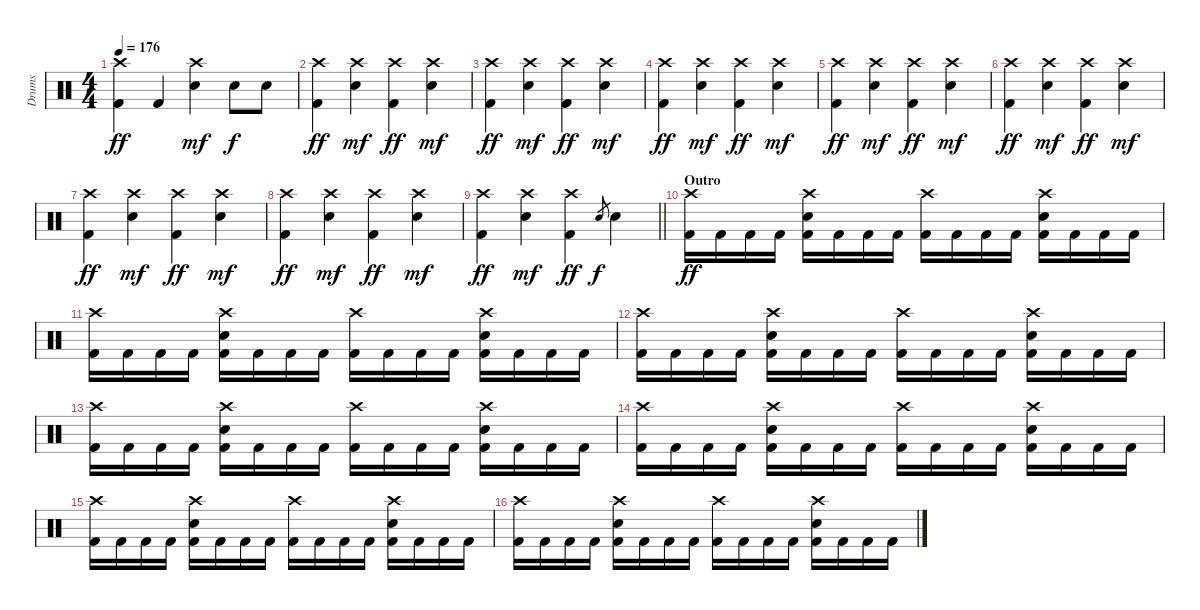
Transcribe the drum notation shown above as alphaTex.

\track ("Drums" "Drums") {instrument percussion}
\staff {score}
\articulation defaults
\ts (4 4)
\tempo 176
\clef neutral
\ks c
("Crash high (hit)" "Kick (hit) 2").4{dy ff} "Kick (hit) 2".4 ("Crash high (hit)" "Electric Snare (hit)").4{dy mf} "Electric Snare (hit)".8{dy f} "Electric Snare (hit)".8 |
("Crash high (hit)" "Kick (hit) 2").4{dy ff} ("Crash high (hit)" "Electric Snare (hit)").4{dy mf} ("Crash high (hit)" "Kick (hit) 2").4{dy ff} ("Crash high (hit)" "Electric Snare (hit)").4{dy mf} |
("Crash high (hit)" "Kick (hit) 2").4{dy ff} ("Crash high (hit)" "Electric Snare (hit)").4{dy mf} ("Crash high (hit)" "Kick (hit) 2").4{dy ff} ("Crash high (hit)" "Electric Snare (hit)").4{dy mf} |
("Crash high (hit)" "Kick (hit) 2").4{dy ff} ("Crash high (hit)" "Electric Snare (hit)").4{dy mf} ("Crash high (hit)" "Kick (hit) 2").4{dy ff} ("Crash high (hit)" "Electric Snare (hit)").4{dy mf} |
("Crash high (hit)" "Kick (hit) 2").4{dy ff} ("Crash high (hit)" "Electric Snare (hit)").4{dy mf} ("Crash high (hit)" "Kick (hit) 2").4{dy ff} ("Crash high (hit)" "Electric Snare (hit)").4{dy mf} |
("Crash high (hit)" "Kick (hit) 2").4{dy ff} ("Crash high (hit)" "Electric Snare (hit)").4{dy mf} ("Crash high (hit)" "Kick (hit) 2").4{dy ff} ("Crash high (hit)" "Electric Snare (hit)").4{dy mf} |
("Crash high (hit)" "Kick (hit) 2").4{dy ff} ("Crash high (hit)" "Electric Snare (hit)").4{dy mf} ("Crash high (hit)" "Kick (hit) 2").4{dy ff} ("Crash high (hit)" "Electric Snare (hit)").4{dy mf} |
("Crash high (hit)" "Kick (hit) 2").4{dy ff} ("Crash high (hit)" "Electric Snare (hit)").4{dy mf} ("Crash high (hit)" "Kick (hit) 2").4{dy ff} ("Crash high (hit)" "Electric Snare (hit)").4{dy mf} |
\barLineRight lightlight
("Crash high (hit)" "Kick (hit) 2").4{dy ff} ("Crash high (hit)" "Electric Snare (hit)").4{dy mf} ("Crash high (hit)" "Kick (hit) 2").4{dy ff} "Electric Snare (hit)".8{gr dy f} "Electric Snare (hit)".4 |
\section ("" "Outro")
("Crash high (hit)" "Kick (hit) 2").16{dy ff} "Kick (hit) 2".16 "Kick (hit) 2".16 "Kick (hit) 2".16 ("Crash high (hit)" "Electric Snare (hit)" "Kick (hit) 2").16 "Kick (hit) 2".16 "Kick (hit) 2".16 "Kick (hit) 2".16 ("Crash high (hit)" "Kick (hit) 2").16 "Kick (hit) 2".16 "Kick (hit) 2".16 "Kick (hit) 2".16 ("Crash high (hit)" "Electric Snare (hit)" "Kick (hit) 2").16 "Kick (hit) 2".16 "Kick (hit) 2".16 "Kick (hit) 2".16 |
("Crash high (hit)" "Kick (hit) 2").16 "Kick (hit) 2".16 "Kick (hit) 2".16 "Kick (hit) 2".16 ("Crash high (hit)" "Electric Snare (hit)" "Kick (hit) 2").16 "Kick (hit) 2".16 "Kick (hit) 2".16 "Kick (hit) 2".16 ("Crash high (hit)" "Kick (hit) 2").16 "Kick (hit) 2".16 "Kick (hit) 2".16 "Kick (hit) 2".16 ("Crash high (hit)" "Electric Snare (hit)" "Kick (hit) 2").16 "Kick (hit) 2".16 "Kick (hit) 2".16 "Kick (hit) 2".16 |
("Crash high (hit)" "Kick (hit) 2").16 "Kick (hit) 2".16 "Kick (hit) 2".16 "Kick (hit) 2".16 ("Crash high (hit)" "Electric Snare (hit)" "Kick (hit) 2").16 "Kick (hit) 2".16 "Kick (hit) 2".16 "Kick (hit) 2".16 ("Crash high (hit)" "Kick (hit) 2").16 "Kick (hit) 2".16 "Kick (hit) 2".16 "Kick (hit) 2".16 ("Crash high (hit)" "Electric Snare (hit)" "Kick (hit) 2").16 "Kick (hit) 2".16 "Kick (hit) 2".16 "Kick (hit) 2".16 |
("Crash high (hit)" "Kick (hit) 2").16 "Kick (hit) 2".16 "Kick (hit) 2".16 "Kick (hit) 2".16 ("Crash high (hit)" "Electric Snare (hit)" "Kick (hit) 2").16 "Kick (hit) 2".16 "Kick (hit) 2".16 "Kick (hit) 2".16 ("Crash high (hit)" "Kick (hit) 2").16 "Kick (hit) 2".16 "Kick (hit) 2".16 "Kick (hit) 2".16 ("Crash high (hit)" "Electric Snare (hit)" "Kick (hit) 2").16 "Kick (hit) 2".16 "Kick (hit) 2".16 "Kick (hit) 2".16 |
("Crash high (hit)" "Kick (hit) 2").16 "Kick (hit) 2".16 "Kick (hit) 2".16 "Kick (hit) 2".16 ("Crash high (hit)" "Electric Snare (hit)" "Kick (hit) 2").16 "Kick (hit) 2".16 "Kick (hit) 2".16 "Kick (hit) 2".16 ("Crash high (hit)" "Kick (hit) 2").16 "Kick (hit) 2".16 "Kick (hit) 2".16 "Kick (hit) 2".16 ("Crash high (hit)" "Electric Snare (hit)" "Kick (hit) 2").16 "Kick (hit) 2".16 "Kick (hit) 2".16 "Kick (hit) 2".16 |
("Crash high (hit)" "Kick (hit) 2").16 "Kick (hit) 2".16 "Kick (hit) 2".16 "Kick (hit) 2".16 ("Crash high (hit)" "Electric Snare (hit)" "Kick (hit) 2").16 "Kick (hit) 2".16 "Kick (hit) 2".16 "Kick (hit) 2".16 ("Crash high (hit)" "Kick (hit) 2").16 "Kick (hit) 2".16 "Kick (hit) 2".16 "Kick (hit) 2".16 ("Crash high (hit)" "Electric Snare (hit)" "Kick (hit) 2").16 "Kick (hit) 2".16 "Kick (hit) 2".16 "Kick (hit) 2".16 |
("Crash high (hit)" "Kick (hit) 2").16 "Kick (hit) 2".16 "Kick (hit) 2".16 "Kick (hit) 2".16 ("Crash high (hit)" "Electric Snare (hit)" "Kick (hit) 2").16 "Kick (hit) 2".16 "Kick (hit) 2".16 "Kick (hit) 2".16 ("Crash high (hit)" "Kick (hit) 2").16 "Kick (hit) 2".16 "Kick (hit) 2".16 "Kick (hit) 2".16 ("Crash high (hit)" "Electric Snare (hit)" "Kick (hit) 2").16 "Kick (hit) 2".16 "Kick (hit) 2".16 "Kick (hit) 2".16
